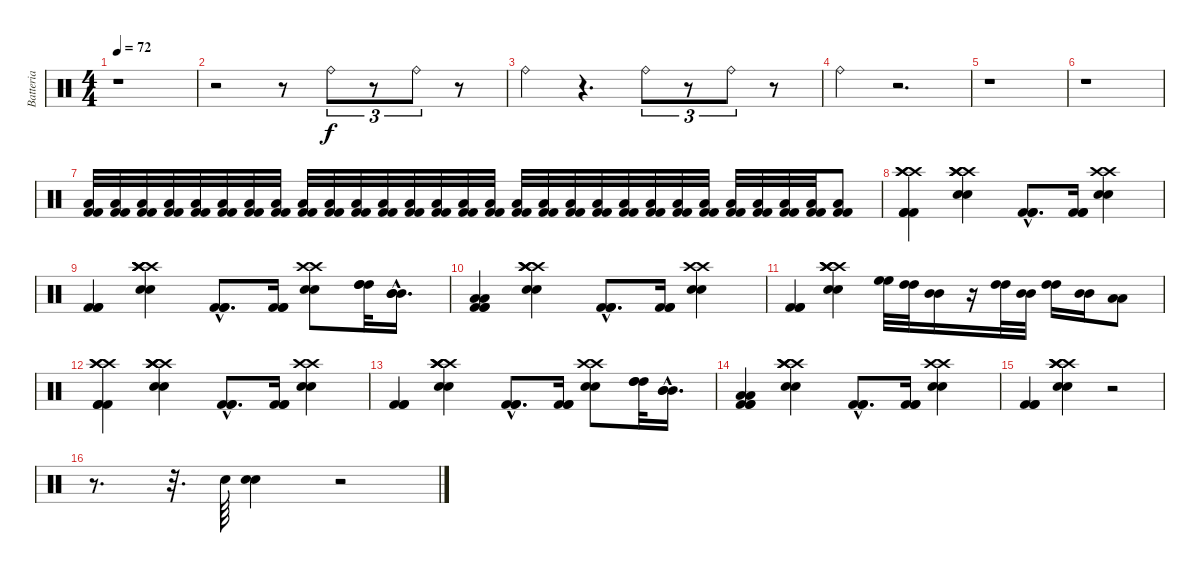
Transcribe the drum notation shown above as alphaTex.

\track ("Batteria" "Batteria") {instrument percussion}
\staff {score}
\articulation defaults
\ts (4 4)
\tempo 72
\clef neutral
\ks c
r.1{dy f} |
r.2 r.8 "Ride (bell)".8{tu (3 2)} r.8{tu (3 2)} "Ride (bell)".8{tu (3 2)} r.8 |
"Ride (bell)".4 r.4{d} "Ride (bell)".8{tu (3 2)} r.8{tu (3 2)} "Ride (bell)".8{tu (3 2)} r.8 |
"Ride (bell)".4 r.2{d} |
r.1 |
r.1 |
("Kick (hit) 2" "Kick (hit) 2" "Low Floor Tom (hit)").32{volume 2} ("Kick (hit) 2" "Kick (hit) 2" "Low Floor Tom (hit)").32 ("Kick (hit) 2" "Kick (hit) 2" "Low Floor Tom (hit)").32 ("Kick (hit) 2" "Kick (hit) 2" "Low Floor Tom (hit)").32{volume 4} ("Kick (hit) 2" "Kick (hit) 2" "Low Floor Tom (hit)").32 ("Kick (hit) 2" "Kick (hit) 2" "Low Floor Tom (hit)").32 ("Kick (hit) 2" "Kick (hit) 2" "Low Floor Tom (hit)").32{volume 6} ("Kick (hit) 2" "Kick (hit) 2" "Low Floor Tom (hit)").32 ("Kick (hit) 2" "Kick (hit) 2" "Low Floor Tom (hit)").32 ("Kick (hit) 2" "Kick (hit) 2" "Low Floor Tom (hit)").32{volume 8} ("Kick (hit) 2" "Kick (hit) 2" "Low Floor Tom (hit)").32 ("Kick (hit) 2" "Kick (hit) 2" "Low Floor Tom (hit)").32 ("Kick (hit) 2" "Kick (hit) 2" "Low Floor Tom (hit)").32{volume 10} ("Kick (hit) 2" "Kick (hit) 2" "Low Floor Tom (hit)").32 ("Kick (hit) 2" "Kick (hit) 2" "Low Floor Tom (hit)").32 ("Kick (hit) 2" "Kick (hit) 2" "Low Floor Tom (hit)").32{volume 11} ("Kick (hit) 2" "Kick (hit) 2" "Low Floor Tom (hit)").32 ("Kick (hit) 2" "Kick (hit) 2" "Low Floor Tom (hit)").32 ("Kick (hit) 2" "Kick (hit) 2" "Low Floor Tom (hit)").32{volume 12} ("Kick (hit) 2" "Kick (hit) 2" "Low Floor Tom (hit)").32 ("Kick (hit) 2" "Kick (hit) 2" "Low Floor Tom (hit)").32 ("Kick (hit) 2" "Kick (hit) 2" "Low Floor Tom (hit)").32{volume 14} ("Kick (hit) 2" "Kick (hit) 2" "Low Floor Tom (hit)").32 ("Kick (hit) 2" "Kick (hit) 2" "Low Floor Tom (hit)").32 ("Kick (hit) 2" "Kick (hit) 2" "Low Floor Tom (hit)").32 ("Kick (hit) 2" "Kick (hit) 2" "Low Floor Tom (hit)").32 ("Kick (hit) 2" "Kick (hit) 2" "Low Floor Tom (hit)").32 ("Kick (hit) 2" "Kick (hit) 2" "Low Floor Tom (hit)").32 ("Kick (hit) 2" "Kick (hit) 2" "Low Floor Tom (hit)").8 |
("Crash high (hit)" "Crash high (hit)" "Crash high (hit)" "Kick (hit) 2" "Kick (hit) 2" "Kick (hit) 2").4{volume 11} ("Crash high (hit)" "Crash high (hit)" "Crash high (hit)" "Crash high (hit)" "Snare (hit) 2" "Snare (hit) 2").4 ("Kick (hit) 2"{hac} "Kick (hit) 2"{hac} "Kick (hit) 2"{hac}).8{d} ("Kick (hit) 2" "Kick (hit) 2" "Kick (hit) 2").16 ("Crash high (hit)" "Crash high (hit)" "Snare (hit) 2" "Snare (hit) 2").4 |
("Kick (hit) 2" "Kick (hit) 2" "Kick (hit) 2").4 ("Crash high (hit)" "Crash high (hit)" "Crash high (hit)" "Crash high (hit)" "Snare (hit) 2" "Snare (hit) 2").4 ("Kick (hit) 2"{hac} "Kick (hit) 2"{hac} "Kick (hit) 2"{hac}).8{d} ("Kick (hit) 2" "Kick (hit) 2" "Kick (hit) 2").16 ("Crash high (hit)" "Crash high (hit)" "Snare (hit) 2" "Snare (hit) 2").8 ("High Tom (hit)" "High Tom (hit)" "High Tom (hit)").32 ("Mid Tom (hit)"{hac} "Mid Tom (hit)"{hac} "Mid Tom (hit)"{hac}).16{d} |
("Low Tom (hit)" "Low Tom (hit)" "Kick (hit) 2" "Kick (hit) 2" "Kick (hit) 2").4 ("Crash high (hit)" "Crash high (hit)" "Crash high (hit)" "Crash high (hit)" "Snare (hit) 2" "Snare (hit) 2").4 ("Kick (hit) 2"{hac} "Kick (hit) 2"{hac} "Kick (hit) 2"{hac}).8{d} ("Kick (hit) 2" "Kick (hit) 2" "Kick (hit) 2").16 ("Crash high (hit)" "Crash high (hit)" "Snare (hit) 2" "Snare (hit) 2").4 |
("Kick (hit) 2" "Kick (hit) 2" "Kick (hit) 2").4 ("Crash high (hit)" "Crash high (hit)" "Crash high (hit)" "Crash high (hit)" "Snare (hit) 2" "Snare (hit) 2").4 ("High Floor Tom (hit)" "High Floor Tom (hit)").32 ("High Tom (hit)" "High Tom (hit)").32 ("Mid Tom (hit)" "Mid Tom (hit)").16 r.16 ("High Tom (hit)" "High Tom (hit)").32 ("Mid Tom (hit)" "Mid Tom (hit)").32 ("High Tom (hit)" "High Tom (hit)").16 ("Mid Tom (hit)" "Mid Tom (hit)").16 ("Low Tom (hit)" "Low Tom (hit)").8 |
("Crash high (hit)" "Crash high (hit)" "Crash high (hit)" "Kick (hit) 2" "Kick (hit) 2" "Kick (hit) 2").4{volume 11} ("Crash high (hit)" "Crash high (hit)" "Crash high (hit)" "Crash high (hit)" "Snare (hit) 2" "Snare (hit) 2").4 ("Kick (hit) 2"{hac} "Kick (hit) 2"{hac} "Kick (hit) 2"{hac}).8{d} ("Kick (hit) 2" "Kick (hit) 2" "Kick (hit) 2").16 ("Crash high (hit)" "Crash high (hit)" "Snare (hit) 2" "Snare (hit) 2").4 |
("Kick (hit) 2" "Kick (hit) 2" "Kick (hit) 2").4 ("Crash high (hit)" "Crash high (hit)" "Crash high (hit)" "Crash high (hit)" "Snare (hit) 2" "Snare (hit) 2").4 ("Kick (hit) 2"{hac} "Kick (hit) 2"{hac} "Kick (hit) 2"{hac}).8{d} ("Kick (hit) 2" "Kick (hit) 2" "Kick (hit) 2").16 ("Crash high (hit)" "Crash high (hit)" "Snare (hit) 2" "Snare (hit) 2").8 ("High Tom (hit)" "High Tom (hit)" "High Tom (hit)").32 ("Mid Tom (hit)"{hac} "Mid Tom (hit)"{hac} "Mid Tom (hit)"{hac}).16{d} |
("Low Tom (hit)" "Low Tom (hit)" "Kick (hit) 2" "Kick (hit) 2" "Kick (hit) 2").4 ("Crash high (hit)" "Crash high (hit)" "Crash high (hit)" "Crash high (hit)" "Snare (hit) 2" "Snare (hit) 2").4 ("Kick (hit) 2"{hac} "Kick (hit) 2"{hac} "Kick (hit) 2"{hac}).8{d} ("Kick (hit) 2" "Kick (hit) 2" "Kick (hit) 2").16 ("Crash high (hit)" "Crash high (hit)" "Snare (hit) 2" "Snare (hit) 2").4 |
("Kick (hit) 2" "Kick (hit) 2" "Kick (hit) 2").4 ("Crash high (hit)" "Crash high (hit)" "Crash high (hit)" "Crash high (hit)" "Snare (hit) 2" "Snare (hit) 2").4 r.2 |
r.8{d} r.32{d} "Snare (hit) 2".64 ("Snare (hit) 2" "Snare (hit) 2").4 r.2
